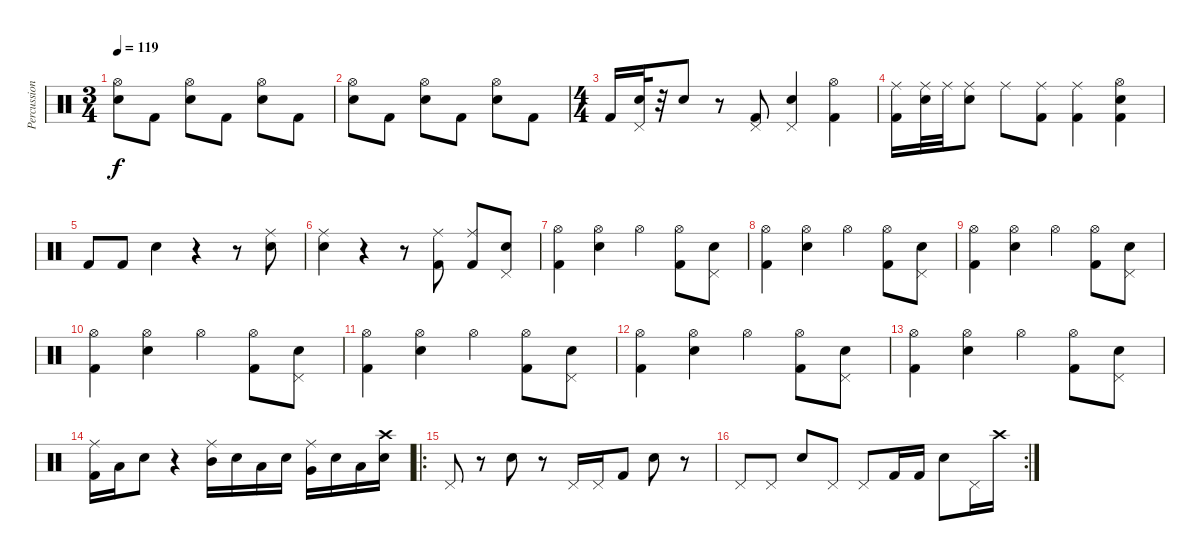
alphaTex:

\track ("Percussion" "Percussion") {instrument percussion}
\staff {score}
\articulation defaults
\ts (3 4)
\tempo 119
\clef neutral
\ks c
("Hi-Hat (open)" "Electric Snare (hit)").8{dy f} "Kick (hit) 2".8 ("Hi-Hat (open)" "Electric Snare (hit)").8 "Kick (hit) 2".8 ("Hi-Hat (open)" "Electric Snare (hit)").8 "Kick (hit) 2".8 |
("Hi-Hat (open)" "Electric Snare (hit)").8 "Kick (hit) 2".8 ("Hi-Hat (open)" "Electric Snare (hit)").8 "Kick (hit) 2".8 ("Hi-Hat (open)" "Electric Snare (hit)").8 "Kick (hit) 2".8 |
\ts (4 4)
"Kick (hit) 2".16 ("Electric Snare (hit)" "Pedal Hi-Hat (hit)").32 r.32 "Electric Snare (hit)".8 r.8 ("Kick (hit) 2" "Pedal Hi-Hat (hit)").8 ("Electric Snare (hit)" "Pedal Hi-Hat (hit)").4 ("Kick (hit) 2" "Hi-Hat (open)").4 |
("Kick (hit) 2" "Ride (middle)").16 ("Electric Snare (hit)" "Ride (middle)").32 "Ride (middle)".32 ("Electric Snare (hit)" "Ride (middle)").8 "Ride (middle)".8 ("Kick (hit) 2" "Ride (middle)").8 ("Kick (hit) 2" "Ride (middle)").4 ("Kick (hit) 2" "Electric Snare (hit)" "Hi-Hat (open)").4 |
"Kick (hit) 2".8 "Kick (hit) 2".8 "Electric Snare (hit)".4 r.4 r.8 ("Ride (middle)" "Electric Snare (hit)").8 |
("Ride (middle)" "Electric Snare (hit)").4 r.4 r.8 ("Ride (middle)" "Kick (hit) 2").8 ("Ride (middle)" "Kick (hit) 2").8 ("Pedal Hi-Hat (hit)" "Electric Snare (hit)").8 |
("Hi-Hat (open)" "Kick (hit) 2").4 ("Hi-Hat (open)" "Electric Snare (hit)").4 "Hi-Hat (open)".4 ("Hi-Hat (open)" "Kick (hit) 2").8 ("Pedal Hi-Hat (hit)" "Electric Snare (hit)").8 |
("Hi-Hat (open)" "Kick (hit) 2").4 ("Hi-Hat (open)" "Electric Snare (hit)").4 "Hi-Hat (open)".4 ("Hi-Hat (open)" "Kick (hit) 2").8 ("Pedal Hi-Hat (hit)" "Electric Snare (hit)").8 |
("Hi-Hat (open)" "Kick (hit) 2").4 ("Hi-Hat (open)" "Electric Snare (hit)").4 "Hi-Hat (open)".4 ("Hi-Hat (open)" "Kick (hit) 2").8 ("Pedal Hi-Hat (hit)" "Electric Snare (hit)").8 |
("Hi-Hat (open)" "Kick (hit) 2").4 ("Hi-Hat (open)" "Electric Snare (hit)").4 "Hi-Hat (open)".4 ("Hi-Hat (open)" "Kick (hit) 2").8 ("Pedal Hi-Hat (hit)" "Electric Snare (hit)").8 |
("Hi-Hat (open)" "Kick (hit) 2").4 ("Hi-Hat (open)" "Electric Snare (hit)").4 "Hi-Hat (open)".4 ("Hi-Hat (open)" "Kick (hit) 2").8 ("Pedal Hi-Hat (hit)" "Electric Snare (hit)").8 |
("Hi-Hat (open)" "Kick (hit) 2").4 ("Hi-Hat (open)" "Electric Snare (hit)").4 "Hi-Hat (open)".4 ("Hi-Hat (open)" "Kick (hit) 2").8 ("Pedal Hi-Hat (hit)" "Electric Snare (hit)").8 |
("Hi-Hat (open)" "Kick (hit) 2").4 ("Hi-Hat (open)" "Electric Snare (hit)").4 "Hi-Hat (open)".4 ("Hi-Hat (open)" "Kick (hit) 2").8 ("Pedal Hi-Hat (hit)" "Electric Snare (hit)").8 |
("Ride (middle)" "Kick (hit) 2").16 "Low Floor Tom (hit)".16 "Electric Snare (hit)".8 r.4 ("Ride (middle)" "Mid Tom (hit)").16 "Electric Snare (hit)".16 "Low Tom (hit)".16 "Electric Snare (hit)".16 ("Ride (middle)" "Very Low Tom (hit)").16 "Electric Snare (hit)".16 "Low Floor Tom (hit)".16 ("Crash high (hit)" "Electric Snare (hit)").16 |
\ro "Pedal Hi-Hat (hit)".8
r.8 "Electric Snare (hit)".8 r.8 "Pedal Hi-Hat (hit)".16 "Pedal Hi-Hat (hit)".16 "Kick (hit) 2".8 "Electric Snare (hit)".8 r.8 |
\rc 2 "Pedal Hi-Hat (hit)".8 "Pedal Hi-Hat (hit)".8 "Electric Snare (hit)".8 "Pedal Hi-Hat (hit)".8 "Pedal Hi-Hat (hit)".8 "Kick (hit) 2".16 "Kick (hit) 2".16 "Electric Snare (hit)".8 "Pedal Hi-Hat (hit)".16 "Crash high (hit)".16
